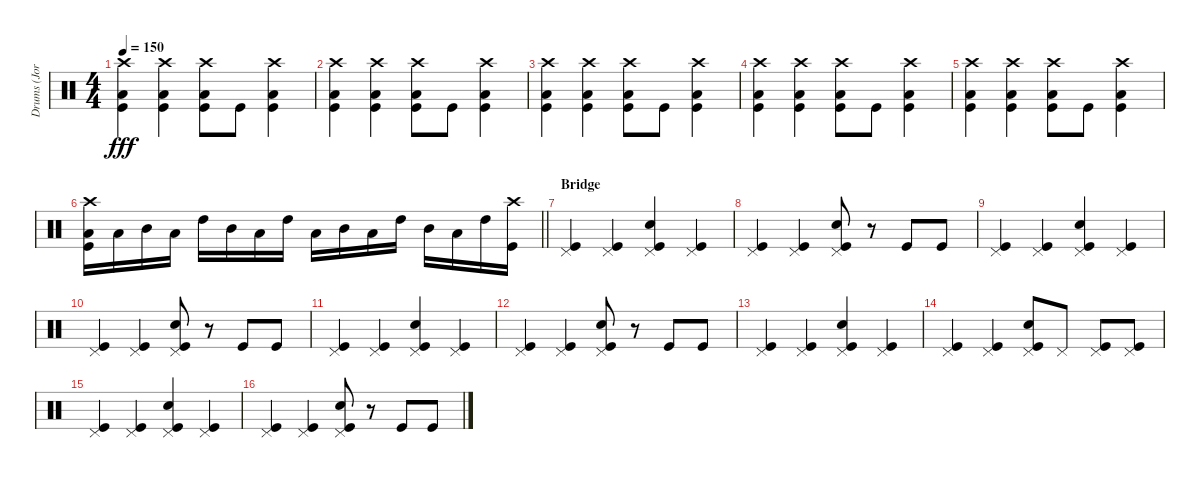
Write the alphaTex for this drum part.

\track ("Drums (Jordan Hastings)" "Drums (Jor") {instrument percussion}
\staff {score}
\articulation defaults
\ts (4 4)
\tempo 150
\clef neutral
\ks c
("Crash high (hit)" "Low Floor Tom (hit)" "Kick (hit)").4{dy fff} ("Crash high (hit)" "Low Floor Tom (hit)" "Kick (hit)").4 ("Crash high (hit)" "Low Floor Tom (hit)" "Kick (hit)").8 "Kick (hit)".8 ("Crash high (hit)" "Low Floor Tom (hit)" "Kick (hit)").4 |
("Crash high (hit)" "Low Floor Tom (hit)" "Kick (hit)").4 ("Crash high (hit)" "Low Floor Tom (hit)" "Kick (hit)").4 ("Crash high (hit)" "Low Floor Tom (hit)" "Kick (hit)").8 "Kick (hit)".8 ("Crash high (hit)" "Low Floor Tom (hit)" "Kick (hit)").4 |
("Crash high (hit)" "Low Floor Tom (hit)" "Kick (hit)").4 ("Crash high (hit)" "Low Floor Tom (hit)" "Kick (hit)").4 ("Crash high (hit)" "Low Floor Tom (hit)" "Kick (hit)").8 "Kick (hit)".8 ("Crash high (hit)" "Low Floor Tom (hit)" "Kick (hit)").4 |
("Crash high (hit)" "Low Floor Tom (hit)" "Kick (hit)").4 ("Crash high (hit)" "Low Floor Tom (hit)" "Kick (hit)").4 ("Crash high (hit)" "Low Floor Tom (hit)" "Kick (hit)").8 "Kick (hit)".8 ("Crash high (hit)" "Low Floor Tom (hit)" "Kick (hit)").4 |
("Crash high (hit)" "Low Floor Tom (hit)" "Kick (hit)").4 ("Crash high (hit)" "Low Floor Tom (hit)" "Kick (hit)").4 ("Crash high (hit)" "Low Floor Tom (hit)" "Kick (hit)").8 "Kick (hit)".8 ("Crash high (hit)" "Low Floor Tom (hit)" "Kick (hit)").4 |
\barLineRight lightlight
("Crash high (hit)" "Low Floor Tom (hit)" "Kick (hit)").16 "Low Tom (hit)".16 "Mid Tom (hit)".16 "Low Tom (hit)".16 "High Tom (hit)".16 "Mid Tom (hit)".16 "Low Tom (hit)".16 "High Tom (hit)".16 "Low Tom (hit)".16 "Mid Tom (hit)".16 "Low Tom (hit)".16 "High Tom (hit)".16 "Mid Tom (hit)".16 "Low Tom (hit)".16 "High Tom (hit)".16 ("Crash high (hit)" "Kick (hit)").16 |
\section ("" "Bridge")
("Kick (hit)" "Pedal Hi-Hat (hit)").4 ("Kick (hit)" "Pedal Hi-Hat (hit)").4 ("Kick (hit)" "Pedal Hi-Hat (hit)" "Electric Snare (hit)").4 ("Kick (hit)" "Pedal Hi-Hat (hit)").4 |
("Kick (hit)" "Pedal Hi-Hat (hit)").4 ("Kick (hit)" "Pedal Hi-Hat (hit)").4 ("Kick (hit)" "Pedal Hi-Hat (hit)" "Electric Snare (hit)").8 r.8 "Kick (hit)".8 "Kick (hit)".8 |
("Kick (hit)" "Pedal Hi-Hat (hit)").4 ("Kick (hit)" "Pedal Hi-Hat (hit)").4 ("Kick (hit)" "Pedal Hi-Hat (hit)" "Electric Snare (hit)").4 ("Kick (hit)" "Pedal Hi-Hat (hit)").4 |
("Kick (hit)" "Pedal Hi-Hat (hit)").4 ("Kick (hit)" "Pedal Hi-Hat (hit)").4 ("Kick (hit)" "Pedal Hi-Hat (hit)" "Electric Snare (hit)").8 r.8 "Kick (hit)".8 "Kick (hit)".8 |
("Kick (hit)" "Pedal Hi-Hat (hit)").4 ("Kick (hit)" "Pedal Hi-Hat (hit)").4 ("Kick (hit)" "Pedal Hi-Hat (hit)" "Electric Snare (hit)").4 ("Kick (hit)" "Pedal Hi-Hat (hit)").4 |
("Kick (hit)" "Pedal Hi-Hat (hit)").4 ("Kick (hit)" "Pedal Hi-Hat (hit)").4 ("Kick (hit)" "Pedal Hi-Hat (hit)" "Electric Snare (hit)").8 r.8 "Kick (hit)".8 "Kick (hit)".8 |
("Kick (hit)" "Pedal Hi-Hat (hit)").4 ("Kick (hit)" "Pedal Hi-Hat (hit)").4 ("Kick (hit)" "Pedal Hi-Hat (hit)" "Electric Snare (hit)").4 ("Kick (hit)" "Pedal Hi-Hat (hit)").4 |
("Kick (hit)" "Pedal Hi-Hat (hit)").4 ("Kick (hit)" "Pedal Hi-Hat (hit)").4 ("Kick (hit)" "Pedal Hi-Hat (hit)" "Electric Snare (hit)").8 "Pedal Hi-Hat (hit)".8 ("Pedal Hi-Hat (hit)" "Kick (hit)").8 ("Pedal Hi-Hat (hit)" "Kick (hit)").8 |
("Kick (hit)" "Pedal Hi-Hat (hit)").4 ("Kick (hit)" "Pedal Hi-Hat (hit)").4 ("Kick (hit)" "Pedal Hi-Hat (hit)" "Electric Snare (hit)").4 ("Kick (hit)" "Pedal Hi-Hat (hit)").4 |
("Kick (hit)" "Pedal Hi-Hat (hit)").4 ("Kick (hit)" "Pedal Hi-Hat (hit)").4 ("Kick (hit)" "Pedal Hi-Hat (hit)" "Electric Snare (hit)").8 r.8 "Kick (hit)".8 "Kick (hit)".8
